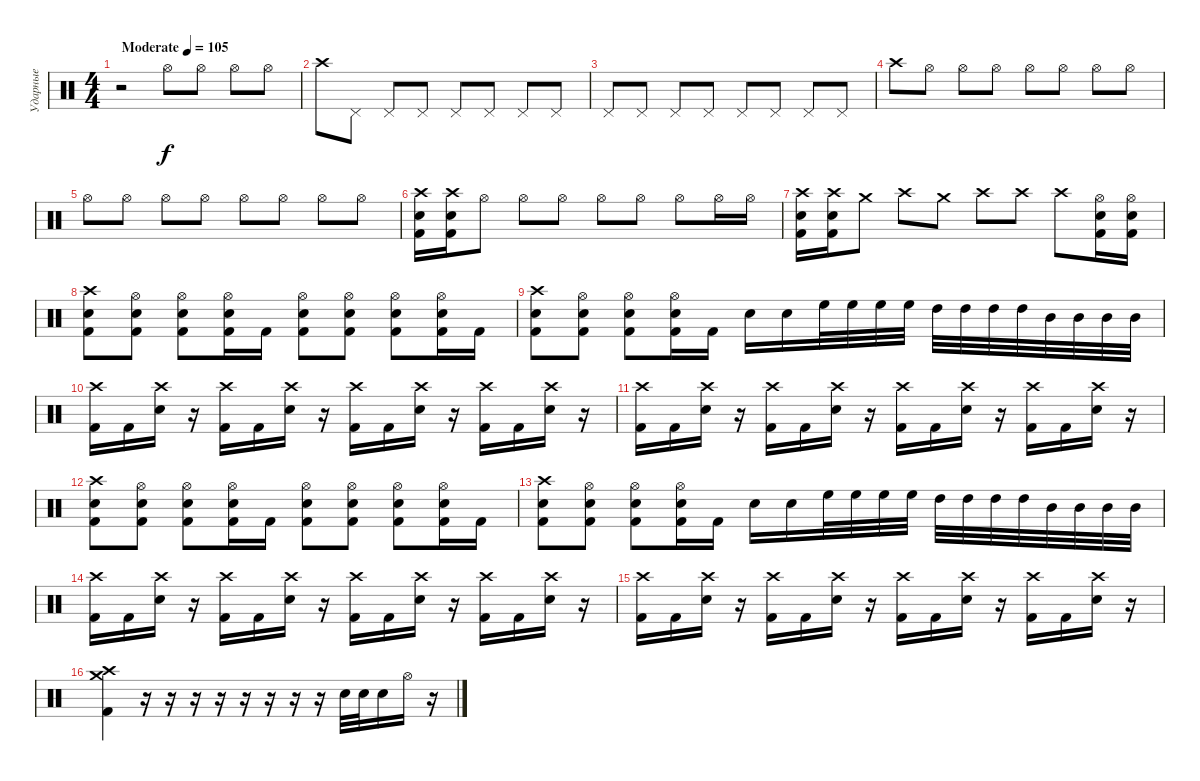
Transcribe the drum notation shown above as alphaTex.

\track ("Ударные" "Ударные") {instrument percussion}
\staff {score}
\articulation defaults
\ts (4 4)
\tempo (105 "Moderate")
\clef neutral
\ks c
r.2{dy f} "Hi-Hat (open)".8 "Hi-Hat (open)".8 "Hi-Hat (open)".8 "Hi-Hat (open)".8 |
"Crash high (hit)".8 "Pedal Hi-Hat (hit)".8 "Pedal Hi-Hat (hit)".8 "Pedal Hi-Hat (hit)".8 "Pedal Hi-Hat (hit)".8 "Pedal Hi-Hat (hit)".8 "Pedal Hi-Hat (hit)".8 "Pedal Hi-Hat (hit)".8 |
"Pedal Hi-Hat (hit)".8 "Pedal Hi-Hat (hit)".8 "Pedal Hi-Hat (hit)".8 "Pedal Hi-Hat (hit)".8 "Pedal Hi-Hat (hit)".8 "Pedal Hi-Hat (hit)".8 "Pedal Hi-Hat (hit)".8 "Pedal Hi-Hat (hit)".8 |
"Crash high (hit)".8 "Hi-Hat (open)".8 "Hi-Hat (open)".8 "Hi-Hat (open)".8 "Hi-Hat (open)".8 "Hi-Hat (open)".8 "Hi-Hat (open)".8 "Hi-Hat (open)".8 |
"Hi-Hat (open)".8 "Hi-Hat (open)".8 "Hi-Hat (open)".8 "Hi-Hat (open)".8 "Hi-Hat (open)".8 "Hi-Hat (open)".8 "Hi-Hat (open)".8 "Hi-Hat (open)".8 |
("Crash high (hit)" "Electric Snare (hit)" "Kick (hit) 2").16 ("Crash high (hit)" "Electric Snare (hit)" "Kick (hit) 2").16 "Hi-Hat (open)".8 "Hi-Hat (open)".8 "Hi-Hat (open)".8 "Hi-Hat (open)".8 "Hi-Hat (open)".8 "Hi-Hat (open)".8 "Hi-Hat (open)".16 "Hi-Hat (open)".16 |
("Crash high (hit)" "Electric Snare (hit)" "Kick (hit) 2").16 ("Crash high (hit)" "Electric Snare (hit)" "Kick (hit) 2").16 "Crash medium (hit)".8 "Crash high (hit)".8 "Crash medium (hit)".8 "Crash high (hit)".8 "Crash high (hit)".8 "Crash high (hit)".8 ("Hi-Hat (open)" "Electric Snare (hit)" "Kick (hit) 2").16 ("Hi-Hat (open)" "Electric Snare (hit)" "Kick (hit) 2").16 |
("Crash high (hit)" "Electric Snare (hit)" "Kick (hit) 2").8 ("Hi-Hat (open)" "Electric Snare (hit)" "Kick (hit) 2").8 ("Hi-Hat (open)" "Electric Snare (hit)" "Kick (hit) 2").8 ("Hi-Hat (open)" "Electric Snare (hit)" "Kick (hit) 2").16 "Kick (hit) 2".16 ("Hi-Hat (open)" "Electric Snare (hit)" "Kick (hit) 2").8 ("Hi-Hat (open)" "Electric Snare (hit)" "Kick (hit) 2").8 ("Hi-Hat (open)" "Electric Snare (hit)" "Kick (hit) 2").8 ("Hi-Hat (open)" "Electric Snare (hit)" "Kick (hit) 2").16 "Kick (hit) 2".16 |
("Crash high (hit)" "Electric Snare (hit)" "Kick (hit) 2").8 ("Hi-Hat (open)" "Electric Snare (hit)" "Kick (hit) 2").8 ("Hi-Hat (open)" "Electric Snare (hit)" "Kick (hit) 2").8 ("Hi-Hat (open)" "Electric Snare (hit)" "Kick (hit) 2").16 "Kick (hit) 2".16 "Electric Snare (hit)".16 "Electric Snare (hit)".16 "High Floor Tom (hit)".32 "High Floor Tom (hit)".32 "High Floor Tom (hit)".32 "High Floor Tom (hit)".32 "High Tom (hit)".32 "High Tom (hit)".32 "High Tom (hit)".32 "High Tom (hit)".32 "Mid Tom (hit)".32 "Mid Tom (hit)".32 "Mid Tom (hit)".32 "Mid Tom (hit)".32 |
("Crash high (hit)" "Kick (hit) 2").16 "Kick (hit) 2".16 ("Crash high (hit)" "Electric Snare (hit)").16 r.16 ("Crash high (hit)" "Kick (hit) 2").16 "Kick (hit) 2".16 ("Crash high (hit)" "Electric Snare (hit)").16 r.16 ("Crash high (hit)" "Kick (hit) 2").16 "Kick (hit) 2".16 ("Crash high (hit)" "Electric Snare (hit)").16 r.16 ("Crash high (hit)" "Kick (hit) 2").16 "Kick (hit) 2".16 ("Crash high (hit)" "Electric Snare (hit)").16 r.16 |
("Crash high (hit)" "Kick (hit) 2").16 "Kick (hit) 2".16 ("Crash high (hit)" "Electric Snare (hit)").16 r.16 ("Crash high (hit)" "Kick (hit) 2").16 "Kick (hit) 2".16 ("Crash high (hit)" "Electric Snare (hit)").16 r.16 ("Crash high (hit)" "Kick (hit) 2").16 "Kick (hit) 2".16 ("Crash high (hit)" "Electric Snare (hit)").16 r.16 ("Crash high (hit)" "Kick (hit) 2").16 "Kick (hit) 2".16 ("Crash high (hit)" "Electric Snare (hit)").16 r.16 |
("Crash high (hit)" "Electric Snare (hit)" "Kick (hit) 2").8 ("Hi-Hat (open)" "Electric Snare (hit)" "Kick (hit) 2").8 ("Hi-Hat (open)" "Electric Snare (hit)" "Kick (hit) 2").8 ("Hi-Hat (open)" "Electric Snare (hit)" "Kick (hit) 2").16 "Kick (hit) 2".16 ("Hi-Hat (open)" "Electric Snare (hit)" "Kick (hit) 2").8 ("Hi-Hat (open)" "Electric Snare (hit)" "Kick (hit) 2").8 ("Hi-Hat (open)" "Electric Snare (hit)" "Kick (hit) 2").8 ("Hi-Hat (open)" "Electric Snare (hit)" "Kick (hit) 2").16 "Kick (hit) 2".16 |
("Crash high (hit)" "Electric Snare (hit)" "Kick (hit) 2").8 ("Hi-Hat (open)" "Electric Snare (hit)" "Kick (hit) 2").8 ("Hi-Hat (open)" "Electric Snare (hit)" "Kick (hit) 2").8 ("Hi-Hat (open)" "Electric Snare (hit)" "Kick (hit) 2").16 "Kick (hit) 2".16 "Electric Snare (hit)".16 "Electric Snare (hit)".16 "High Floor Tom (hit)".32 "High Floor Tom (hit)".32 "High Floor Tom (hit)".32 "High Floor Tom (hit)".32 "High Tom (hit)".32 "High Tom (hit)".32 "High Tom (hit)".32 "High Tom (hit)".32 "Mid Tom (hit)".32 "Mid Tom (hit)".32 "Mid Tom (hit)".32 "Mid Tom (hit)".32 |
("Crash high (hit)" "Kick (hit) 2").16 "Kick (hit) 2".16 ("Crash high (hit)" "Electric Snare (hit)").16 r.16 ("Crash high (hit)" "Kick (hit) 2").16 "Kick (hit) 2".16 ("Crash high (hit)" "Electric Snare (hit)").16 r.16 ("Crash high (hit)" "Kick (hit) 2").16 "Kick (hit) 2".16 ("Crash high (hit)" "Electric Snare (hit)").16 r.16 ("Crash high (hit)" "Kick (hit) 2").16 "Kick (hit) 2".16 ("Crash high (hit)" "Electric Snare (hit)").16 r.16 |
("Crash high (hit)" "Kick (hit) 2").16 "Kick (hit) 2".16 ("Crash high (hit)" "Electric Snare (hit)").16 r.16 ("Crash high (hit)" "Kick (hit) 2").16 "Kick (hit) 2".16 ("Crash high (hit)" "Electric Snare (hit)").16 r.16 ("Crash high (hit)" "Kick (hit) 2").16 "Kick (hit) 2".16 ("Crash high (hit)" "Electric Snare (hit)").16 r.16 ("Crash high (hit)" "Kick (hit) 2").16 "Kick (hit) 2".16 ("Crash high (hit)" "Electric Snare (hit)").16 r.16 |
("Crash high (hit)" "Crash medium (hit)" "Kick (hit) 2").4 r.16 r.16 r.16 r.16 r.16 r.16 r.16 r.16 "Electric Snare (hit)".32 "Electric Snare (hit)".32 "Electric Snare (hit)".16 "Hi-Hat (open)".16 r.16
